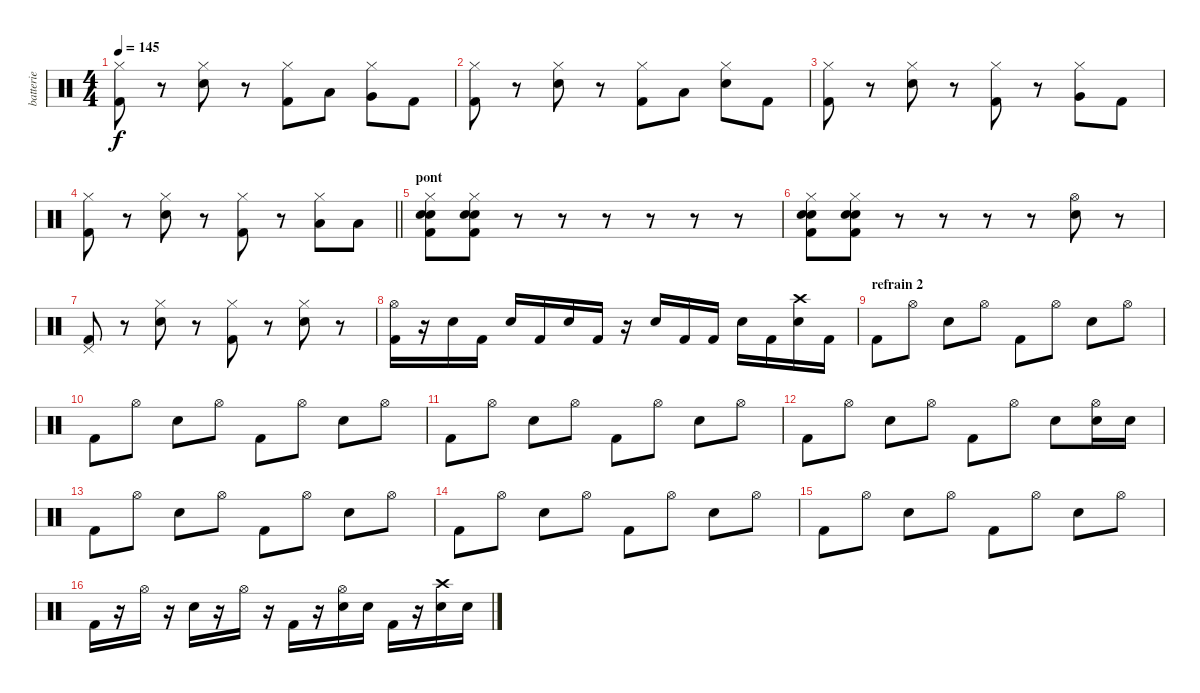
\track ("batterie" "batterie") {instrument percussion}
\staff {score}
\articulation defaults
\ts (4 4)
\tempo 145
\clef neutral
\ks c
("Hi-Hat (closed)" "Kick (hit) 2").8{dy f} r.8 ("Hi-Hat (closed)" "Electric Snare (hit)").8 r.8 ("Hi-Hat (closed)" "Kick (hit) 2").8 "Low Tom (hit)".8 ("Hi-Hat (closed)" "Very Low Tom (hit)").8 "Kick (hit) 2".8 |
("Hi-Hat (closed)" "Kick (hit) 2").8 r.8 ("Hi-Hat (closed)" "Electric Snare (hit)").8 r.8 ("Hi-Hat (closed)" "Kick (hit) 2").8 "Low Tom (hit)".8 ("Hi-Hat (closed)" "Electric Snare (hit)").8 "Kick (hit) 2".8 |
("Hi-Hat (closed)" "Kick (hit) 2").8 r.8 ("Hi-Hat (closed)" "Electric Snare (hit)").8 r.8 ("Hi-Hat (closed)" "Kick (hit) 2").8 r.8 ("Hi-Hat (closed)" "Very Low Tom (hit)").8 "Kick (hit) 2".8 |
\barLineRight lightlight
("Hi-Hat (closed)" "Kick (hit) 2").8 r.8 ("Hi-Hat (closed)" "Electric Snare (hit)").8 r.8 ("Hi-Hat (closed)" "Kick (hit) 2").8 r.8 ("Hi-Hat (closed)" "Low Floor Tom (hit)").8 "Low Floor Tom (hit)".8 |
\section ("" "pont")
("Hi-Hat (closed)" "Snare (hit) 2" "Electric Snare (hit)" "Kick (hit) 2").8 ("Hi-Hat (closed)" "Snare (hit) 2" "Electric Snare (hit)" "Kick (hit) 2").8 r.8 r.8 r.8 r.8 r.8 r.8 |
("Hi-Hat (closed)" "Snare (hit) 2" "Electric Snare (hit)" "Kick (hit) 2").8 ("Hi-Hat (closed)" "Snare (hit) 2" "Electric Snare (hit)" "Kick (hit) 2").8 r.8 r.8 r.8 r.8 ("Hi-Hat (open)" "Electric Snare (hit)").8 r.8 |
("Pedal Hi-Hat (hit)" "Kick (hit) 2").8 r.8 ("Hi-Hat (closed)" "Electric Snare (hit)").8 r.8 ("Hi-Hat (closed)" "Kick (hit) 2").8 r.8 ("Hi-Hat (closed)" "Electric Snare (hit)").8 r.8 |
("Hi-Hat (open)" "Kick (hit) 2").16 r.16 "Electric Snare (hit)".16 "Kick (hit) 2".16 "Electric Snare (hit)".16 "Kick (hit) 2".16 "Electric Snare (hit)".16 "Kick (hit) 2".16 r.16 "Electric Snare (hit)".16 "Kick (hit) 2".16 "Kick (hit) 2".16 "Electric Snare (hit)".16 "Kick (hit) 2".16 ("Crash high (hit)" "Electric Snare (hit)").16 "Kick (hit) 2".16 |
\section ("" "refrain 2")
"Kick (hit) 2".8 "Hi-Hat (open)".8 "Electric Snare (hit)".8 "Hi-Hat (open)".8 "Kick (hit) 2".8 "Hi-Hat (open)".8 "Electric Snare (hit)".8 "Hi-Hat (open)".8 |
"Kick (hit) 2".8 "Hi-Hat (open)".8 "Electric Snare (hit)".8 "Hi-Hat (open)".8 "Kick (hit) 2".8 "Hi-Hat (open)".8 "Electric Snare (hit)".8 "Hi-Hat (open)".8 |
"Kick (hit) 2".8 "Hi-Hat (open)".8 "Electric Snare (hit)".8 "Hi-Hat (open)".8 "Kick (hit) 2".8 "Hi-Hat (open)".8 "Electric Snare (hit)".8 "Hi-Hat (open)".8 |
"Kick (hit) 2".8 "Hi-Hat (open)".8 "Electric Snare (hit)".8 "Hi-Hat (open)".8 "Kick (hit) 2".8 "Hi-Hat (open)".8 "Electric Snare (hit)".8 ("Hi-Hat (open)" "Electric Snare (hit)").16 "Electric Snare (hit)".16 |
"Kick (hit) 2".8 "Hi-Hat (open)".8 "Electric Snare (hit)".8 "Hi-Hat (open)".8 "Kick (hit) 2".8 "Hi-Hat (open)".8 "Electric Snare (hit)".8 "Hi-Hat (open)".8 |
"Kick (hit) 2".8 "Hi-Hat (open)".8 "Electric Snare (hit)".8 "Hi-Hat (open)".8 "Kick (hit) 2".8 "Hi-Hat (open)".8 "Electric Snare (hit)".8 "Hi-Hat (open)".8 |
"Kick (hit) 2".8 "Hi-Hat (open)".8 "Electric Snare (hit)".8 "Hi-Hat (open)".8 "Kick (hit) 2".8 "Hi-Hat (open)".8 "Electric Snare (hit)".8 "Hi-Hat (open)".8 |
"Kick (hit) 2".16 r.16 "Hi-Hat (open)".16 r.16 "Electric Snare (hit)".16 r.16 "Hi-Hat (open)".16 r.16 "Kick (hit) 2".16 r.16 ("Hi-Hat (open)" "Electric Snare (hit)").16 "Electric Snare (hit)".16 "Kick (hit) 2".16 r.16 ("Crash high (hit)" "Electric Snare (hit)").16 "Electric Snare (hit)".16
